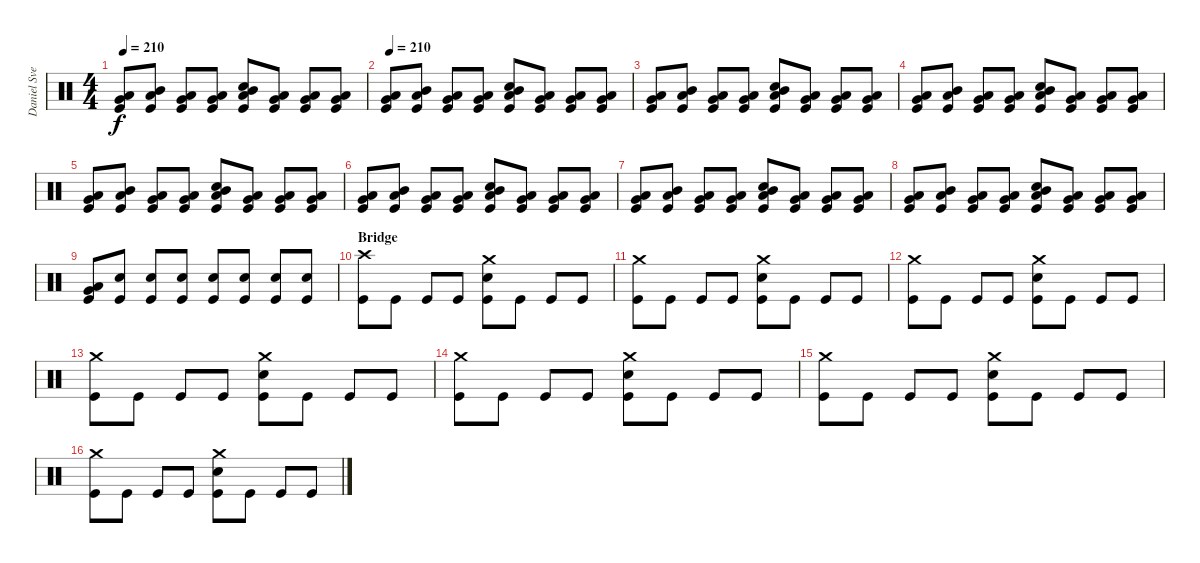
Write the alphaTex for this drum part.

\track ("Daniel Svensson" "Daniel Sve") {instrument percussion}
\staff {score}
\articulation defaults
\ts (4 4)
\tempo 210
\clef neutral
\ks c
("Very Low Tom (hit)" "Low Tom (hit)" "Kick (hit)").8{dy f} ("Low Tom (hit)" "Mid Tom (hit)" "Kick (hit)").8 ("Very Low Tom (hit)" "Low Tom (hit)" "Kick (hit)").8 ("Low Floor Tom (hit)" "Very Low Tom (hit)" "Kick (hit)").8 ("Low Tom (hit)" "Mid Tom (hit)" "Electric Snare (hit)" "Kick (hit)").8 ("Very Low Tom (hit)" "Low Tom (hit)" "Kick (hit)").8 ("Low Floor Tom (hit)" "Very Low Tom (hit)" "Kick (hit)").8 ("Very Low Tom (hit)" "Low Tom (hit)" "Kick (hit)").8 |
\tempo 210
("Very Low Tom (hit)" "Low Tom (hit)" "Kick (hit)").8 ("Low Tom (hit)" "Mid Tom (hit)" "Kick (hit)").8 ("Very Low Tom (hit)" "Low Tom (hit)" "Kick (hit)").8 ("Low Floor Tom (hit)" "Very Low Tom (hit)" "Kick (hit)").8 ("Low Tom (hit)" "Mid Tom (hit)" "Electric Snare (hit)" "Kick (hit)").8 ("Very Low Tom (hit)" "Low Tom (hit)" "Kick (hit)").8 ("Low Floor Tom (hit)" "Very Low Tom (hit)" "Kick (hit)").8 ("Very Low Tom (hit)" "Low Tom (hit)" "Kick (hit)").8 |
("Very Low Tom (hit)" "Low Tom (hit)" "Kick (hit)").8 ("Low Tom (hit)" "Mid Tom (hit)" "Kick (hit)").8 ("Very Low Tom (hit)" "Low Tom (hit)" "Kick (hit)").8 ("Low Floor Tom (hit)" "Very Low Tom (hit)" "Kick (hit)").8 ("Low Tom (hit)" "Mid Tom (hit)" "Electric Snare (hit)" "Kick (hit)").8 ("Very Low Tom (hit)" "Low Tom (hit)" "Kick (hit)").8 ("Low Floor Tom (hit)" "Very Low Tom (hit)" "Kick (hit)").8 ("Very Low Tom (hit)" "Low Tom (hit)" "Kick (hit)").8 |
("Very Low Tom (hit)" "Low Tom (hit)" "Kick (hit)").8 ("Low Tom (hit)" "Mid Tom (hit)" "Kick (hit)").8 ("Very Low Tom (hit)" "Low Tom (hit)" "Kick (hit)").8 ("Low Floor Tom (hit)" "Very Low Tom (hit)" "Kick (hit)").8 ("Low Tom (hit)" "Mid Tom (hit)" "Electric Snare (hit)" "Kick (hit)").8 ("Very Low Tom (hit)" "Low Tom (hit)" "Kick (hit)").8 ("Low Floor Tom (hit)" "Very Low Tom (hit)" "Kick (hit)").8 ("Very Low Tom (hit)" "Low Tom (hit)" "Kick (hit)").8 |
("Very Low Tom (hit)" "Low Tom (hit)" "Kick (hit)").8 ("Low Tom (hit)" "Mid Tom (hit)" "Kick (hit)").8 ("Very Low Tom (hit)" "Low Tom (hit)" "Kick (hit)").8 ("Low Floor Tom (hit)" "Very Low Tom (hit)" "Kick (hit)").8 ("Low Tom (hit)" "Mid Tom (hit)" "Electric Snare (hit)" "Kick (hit)").8 ("Very Low Tom (hit)" "Low Tom (hit)" "Kick (hit)").8 ("Low Floor Tom (hit)" "Very Low Tom (hit)" "Kick (hit)").8 ("Very Low Tom (hit)" "Low Tom (hit)" "Kick (hit)").8 |
("Very Low Tom (hit)" "Low Tom (hit)" "Kick (hit)").8 ("Low Tom (hit)" "Mid Tom (hit)" "Kick (hit)").8 ("Very Low Tom (hit)" "Low Tom (hit)" "Kick (hit)").8 ("Low Floor Tom (hit)" "Very Low Tom (hit)" "Kick (hit)").8 ("Low Tom (hit)" "Mid Tom (hit)" "Electric Snare (hit)" "Kick (hit)").8 ("Very Low Tom (hit)" "Low Tom (hit)" "Kick (hit)").8 ("Low Floor Tom (hit)" "Very Low Tom (hit)" "Kick (hit)").8 ("Very Low Tom (hit)" "Low Tom (hit)" "Kick (hit)").8 |
("Very Low Tom (hit)" "Low Tom (hit)" "Kick (hit)").8 ("Low Tom (hit)" "Mid Tom (hit)" "Kick (hit)").8 ("Very Low Tom (hit)" "Low Tom (hit)" "Kick (hit)").8 ("Low Floor Tom (hit)" "Very Low Tom (hit)" "Kick (hit)").8 ("Low Tom (hit)" "Mid Tom (hit)" "Electric Snare (hit)" "Kick (hit)").8 ("Very Low Tom (hit)" "Low Tom (hit)" "Kick (hit)").8 ("Low Floor Tom (hit)" "Very Low Tom (hit)" "Kick (hit)").8 ("Very Low Tom (hit)" "Low Tom (hit)" "Kick (hit)").8 |
("Very Low Tom (hit)" "Low Tom (hit)" "Kick (hit)").8 ("Low Tom (hit)" "Mid Tom (hit)" "Kick (hit)").8 ("Very Low Tom (hit)" "Low Tom (hit)" "Kick (hit)").8 ("Low Floor Tom (hit)" "Very Low Tom (hit)" "Kick (hit)").8 ("Low Tom (hit)" "Mid Tom (hit)" "Electric Snare (hit)" "Kick (hit)").8 ("Very Low Tom (hit)" "Low Tom (hit)" "Kick (hit)").8 ("Low Floor Tom (hit)" "Very Low Tom (hit)" "Kick (hit)").8 ("Very Low Tom (hit)" "Low Tom (hit)" "Kick (hit)").8 |
("Very Low Tom (hit)" "Low Tom (hit)" "Kick (hit)").8 ("Electric Snare (hit)" "Kick (hit)").8 ("Electric Snare (hit)" "Kick (hit)").8 ("Electric Snare (hit)" "Kick (hit)").8 ("Electric Snare (hit)" "Kick (hit)").8 ("Electric Snare (hit)" "Kick (hit)").8 ("Electric Snare (hit)" "Kick (hit)").8 ("Electric Snare (hit)" "Kick (hit)").8 |
\section ("" "Bridge")
("Crash high (hit)" "Kick (hit)").8 "Kick (hit)".8 "Kick (hit)".8 "Kick (hit)".8 ("Crash medium (hit)" "Electric Snare (hit)" "Kick (hit)").8 "Kick (hit)".8 "Kick (hit)".8 "Kick (hit)".8 |
("Crash medium (hit)" "Kick (hit)").8 "Kick (hit)".8 "Kick (hit)".8 "Kick (hit)".8 ("Crash medium (hit)" "Electric Snare (hit)" "Kick (hit)").8 "Kick (hit)".8 "Kick (hit)".8 "Kick (hit)".8 |
("Crash medium (hit)" "Kick (hit)").8 "Kick (hit)".8 "Kick (hit)".8 "Kick (hit)".8 ("Crash medium (hit)" "Electric Snare (hit)" "Kick (hit)").8 "Kick (hit)".8 "Kick (hit)".8 "Kick (hit)".8 |
("Crash medium (hit)" "Kick (hit)").8 "Kick (hit)".8 "Kick (hit)".8 "Kick (hit)".8 ("Crash medium (hit)" "Electric Snare (hit)" "Kick (hit)").8 "Kick (hit)".8 "Kick (hit)".8 "Kick (hit)".8 |
("Crash medium (hit)" "Kick (hit)").8 "Kick (hit)".8 "Kick (hit)".8 "Kick (hit)".8 ("Crash medium (hit)" "Electric Snare (hit)" "Kick (hit)").8 "Kick (hit)".8 "Kick (hit)".8 "Kick (hit)".8 |
("Crash medium (hit)" "Kick (hit)").8 "Kick (hit)".8 "Kick (hit)".8 "Kick (hit)".8 ("Crash medium (hit)" "Electric Snare (hit)" "Kick (hit)").8 "Kick (hit)".8 "Kick (hit)".8 "Kick (hit)".8 |
("Crash medium (hit)" "Kick (hit)").8 "Kick (hit)".8 "Kick (hit)".8 "Kick (hit)".8 ("Crash medium (hit)" "Electric Snare (hit)" "Kick (hit)").8 "Kick (hit)".8 "Kick (hit)".8 "Kick (hit)".8
